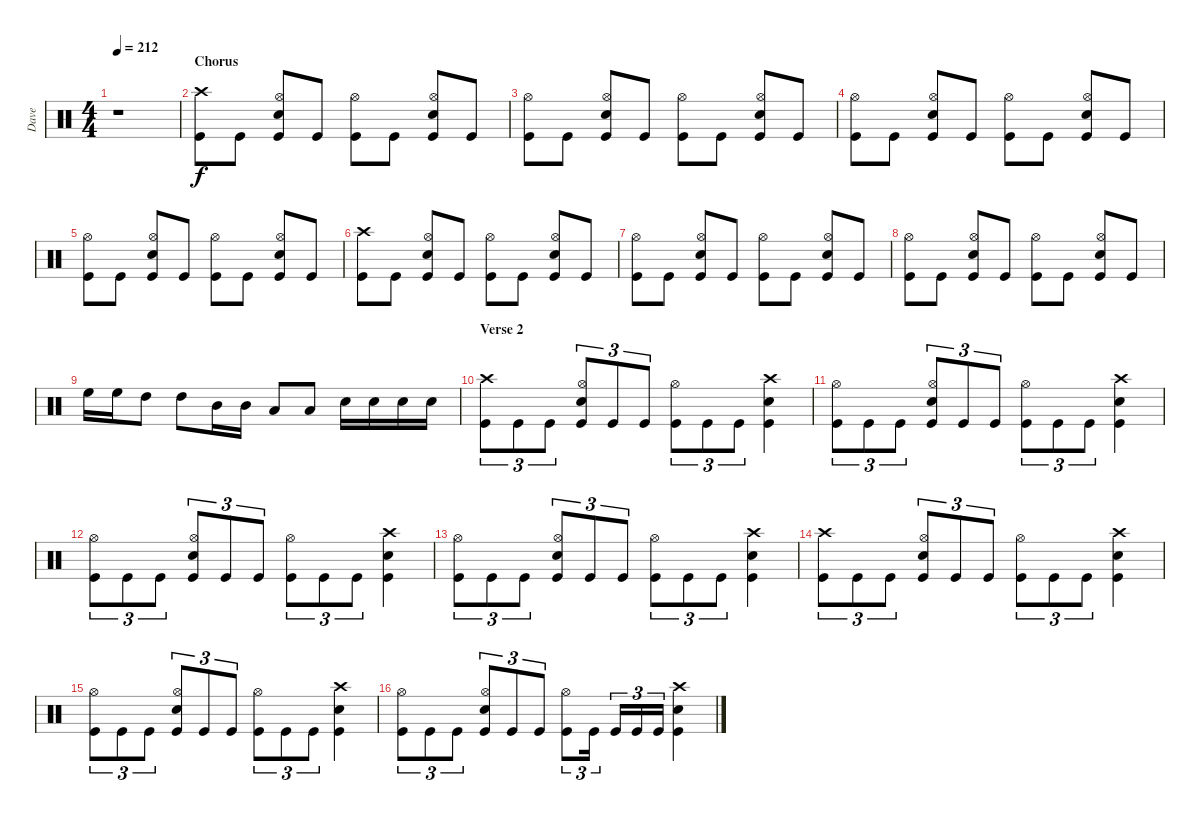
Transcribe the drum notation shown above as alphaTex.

\track ("Dave" "Dave") {instrument percussion}
\staff {score}
\articulation defaults
\ts (4 4)
\tempo 212
\clef neutral
\ks c
r.1{dy f} |
\section ("" "Chorus")
("Crash high (hit)" "Kick (hit)").8 "Kick (hit)".8 ("Hi-Hat (open)" "Snare (hit) 2" "Kick (hit)").8 "Kick (hit)".8 ("Hi-Hat (open)" "Kick (hit)").8 "Kick (hit)".8 ("Hi-Hat (open)" "Snare (hit) 2" "Kick (hit)").8 "Kick (hit)".8 |
("Hi-Hat (open)" "Kick (hit)").8 "Kick (hit)".8 ("Hi-Hat (open)" "Snare (hit) 2" "Kick (hit)").8 "Kick (hit)".8 ("Hi-Hat (open)" "Kick (hit)").8 "Kick (hit)".8 ("Hi-Hat (open)" "Snare (hit) 2" "Kick (hit)").8 "Kick (hit)".8 |
("Hi-Hat (open)" "Kick (hit)").8 "Kick (hit)".8 ("Hi-Hat (open)" "Snare (hit) 2" "Kick (hit)").8 "Kick (hit)".8 ("Hi-Hat (open)" "Kick (hit)").8 "Kick (hit)".8 ("Hi-Hat (open)" "Snare (hit) 2" "Kick (hit)").8 "Kick (hit)".8 |
("Hi-Hat (open)" "Kick (hit)").8 "Kick (hit)".8 ("Hi-Hat (open)" "Snare (hit) 2" "Kick (hit)").8 "Kick (hit)".8 ("Hi-Hat (open)" "Kick (hit)").8 "Kick (hit)".8 ("Hi-Hat (open)" "Snare (hit) 2" "Kick (hit)").8 "Kick (hit)".8 |
("Crash high (hit)" "Kick (hit)").8 "Kick (hit)".8 ("Hi-Hat (open)" "Snare (hit) 2" "Kick (hit)").8 "Kick (hit)".8 ("Hi-Hat (open)" "Kick (hit)").8 "Kick (hit)".8 ("Hi-Hat (open)" "Snare (hit) 2" "Kick (hit)").8 "Kick (hit)".8 |
("Hi-Hat (open)" "Kick (hit)").8 "Kick (hit)".8 ("Hi-Hat (open)" "Snare (hit) 2" "Kick (hit)").8 "Kick (hit)".8 ("Hi-Hat (open)" "Kick (hit)").8 "Kick (hit)".8 ("Hi-Hat (open)" "Snare (hit) 2" "Kick (hit)").8 "Kick (hit)".8 |
("Hi-Hat (open)" "Kick (hit)").8 "Kick (hit)".8 ("Hi-Hat (open)" "Snare (hit) 2" "Kick (hit)").8 "Kick (hit)".8 ("Hi-Hat (open)" "Kick (hit)").8 "Kick (hit)".8 ("Hi-Hat (open)" "Snare (hit) 2" "Kick (hit)").8 "Kick (hit)".8 |
"High Floor Tom (hit)".16 "High Floor Tom (hit)".16 "High Tom (hit)".8 "High Tom (hit)".8 "Mid Tom (hit)".16 "Mid Tom (hit)".16 "Low Tom (hit)".8 "Low Tom (hit)".8 "Snare (hit) 2".16 "Snare (hit) 2".16 "Snare (hit) 2".16 "Snare (hit) 2".16 |
\section ("" "Verse 2")
("Crash high (hit)" "Kick (hit)").8{tu (3 2)} "Kick (hit)".8{tu (3 2)} "Kick (hit)".8{tu (3 2)} ("Hi-Hat (open)" "Snare (hit) 2" "Kick (hit)").8{tu (3 2)} "Kick (hit)".8{tu (3 2)} "Kick (hit)".8{tu (3 2)} ("Hi-Hat (open)" "Kick (hit)").8{tu (3 2)} "Kick (hit)".8{tu (3 2)} "Kick (hit)".8{tu (3 2)} ("Crash high (hit)" "Snare (hit) 2" "Kick (hit)").4 |
("Hi-Hat (open)" "Kick (hit)").8{tu (3 2)} "Kick (hit)".8{tu (3 2)} "Kick (hit)".8{tu (3 2)} ("Hi-Hat (open)" "Snare (hit) 2" "Kick (hit)").8{tu (3 2)} "Kick (hit)".8{tu (3 2)} "Kick (hit)".8{tu (3 2)} ("Hi-Hat (open)" "Kick (hit)").8{tu (3 2)} "Kick (hit)".8{tu (3 2)} "Kick (hit)".8{tu (3 2)} ("Crash high (hit)" "Snare (hit) 2" "Kick (hit)").4 |
("Hi-Hat (open)" "Kick (hit)").8{tu (3 2)} "Kick (hit)".8{tu (3 2)} "Kick (hit)".8{tu (3 2)} ("Hi-Hat (open)" "Snare (hit) 2" "Kick (hit)").8{tu (3 2)} "Kick (hit)".8{tu (3 2)} "Kick (hit)".8{tu (3 2)} ("Hi-Hat (open)" "Kick (hit)").8{tu (3 2)} "Kick (hit)".8{tu (3 2)} "Kick (hit)".8{tu (3 2)} ("Crash high (hit)" "Snare (hit) 2" "Kick (hit)").4 |
("Hi-Hat (open)" "Kick (hit)").8{tu (3 2)} "Kick (hit)".8{tu (3 2)} "Kick (hit)".8{tu (3 2)} ("Hi-Hat (open)" "Snare (hit) 2" "Kick (hit)").8{tu (3 2)} "Kick (hit)".8{tu (3 2)} "Kick (hit)".8{tu (3 2)} ("Hi-Hat (open)" "Kick (hit)").8{tu (3 2)} "Kick (hit)".8{tu (3 2)} "Kick (hit)".8{tu (3 2)} ("Crash high (hit)" "Snare (hit) 2" "Kick (hit)").4 |
("Crash high (hit)" "Kick (hit)").8{tu (3 2)} "Kick (hit)".8{tu (3 2)} "Kick (hit)".8{tu (3 2)} ("Hi-Hat (open)" "Snare (hit) 2" "Kick (hit)").8{tu (3 2)} "Kick (hit)".8{tu (3 2)} "Kick (hit)".8{tu (3 2)} ("Hi-Hat (open)" "Kick (hit)").8{tu (3 2)} "Kick (hit)".8{tu (3 2)} "Kick (hit)".8{tu (3 2)} ("Crash high (hit)" "Snare (hit) 2" "Kick (hit)").4 |
("Hi-Hat (open)" "Kick (hit)").8{tu (3 2)} "Kick (hit)".8{tu (3 2)} "Kick (hit)".8{tu (3 2)} ("Hi-Hat (open)" "Snare (hit) 2" "Kick (hit)").8{tu (3 2)} "Kick (hit)".8{tu (3 2)} "Kick (hit)".8{tu (3 2)} ("Hi-Hat (open)" "Kick (hit)").8{tu (3 2)} "Kick (hit)".8{tu (3 2)} "Kick (hit)".8{tu (3 2)} ("Crash high (hit)" "Snare (hit) 2" "Kick (hit)").4 |
("Hi-Hat (open)" "Kick (hit)").8{tu (3 2)} "Kick (hit)".8{tu (3 2)} "Kick (hit)".8{tu (3 2)} ("Hi-Hat (open)" "Snare (hit) 2" "Kick (hit)").8{tu (3 2)} "Kick (hit)".8{tu (3 2)} "Kick (hit)".8{tu (3 2)} ("Hi-Hat (open)" "Kick (hit)").8{tu (3 2)} "Kick (hit)".16{tu (3 2)} "Kick (hit)".16{tu (3 2)} "Kick (hit)".16{tu (3 2)} "Kick (hit)".16{tu (3 2)} ("Crash high (hit)" "Snare (hit) 2" "Kick (hit)").4
